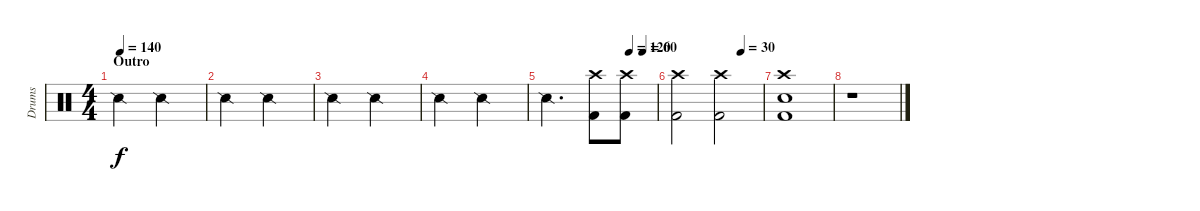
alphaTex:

\track ("Drums" "Drums") {instrument percussion}
\staff {score}
\articulation defaults
\ts (4 4)
\section ("" "Outro")
\tempo 140
\clef neutral
\ks c "Snare (side stick) 2".2{dy f} "Snare (side stick) 2".2
|
"Snare (side stick) 2".2 "Snare (side stick) 2".2 |
"Snare (side stick) 2".2 "Snare (side stick) 2".2 |
"Snare (side stick) 2".2 "Snare (side stick) 2".2 |
\tempo (120 0.75)
\tempo (60 0.875)
"Snare (side stick) 2".2{d} ("Crash high (hit)" "Kick (hit) 2").8 ("Crash high (hit)" "Kick (hit) 2").8 |
\tempo (30 0.75)
("Crash high (hit)" "Kick (hit) 2").2 ("Crash high (hit)" "Kick (hit) 2").2 |
("Crash high (hit)" "Snare (hit) 2" "Kick (hit) 2").1 |
r.1
